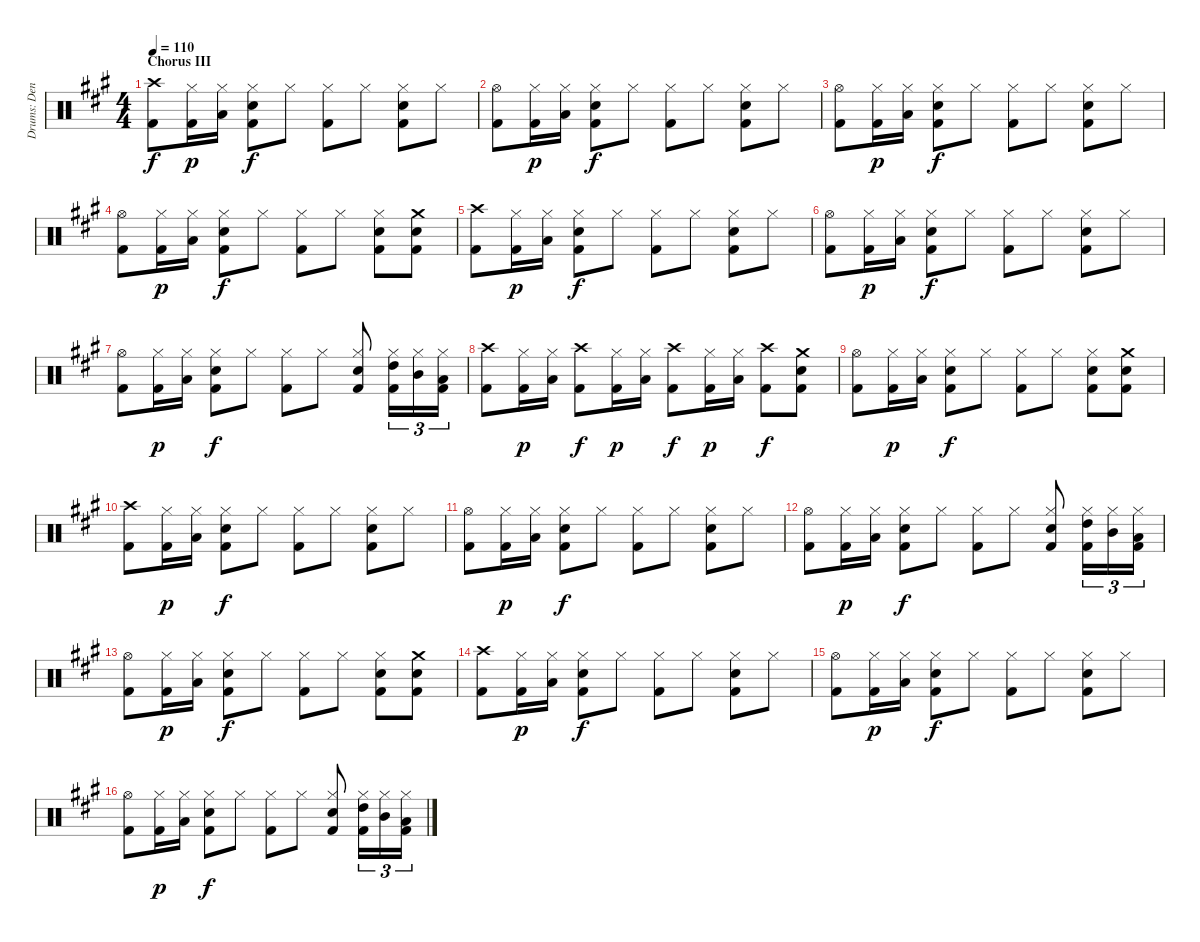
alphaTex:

\track ("Drums: Dennis Elliott" "Drums: Den") {instrument percussion}
\staff {score}
\articulation defaults
\ts (4 4)
\section ("" "Chorus III")
\tempo 110
\clef neutral
\ks a
("Crash high (hit)" "Kick (hit) 2").8{dy f} ("Hi-Hat (closed)" "Kick (hit) 2").16{dy p} ("Hi-Hat (closed)" "Low Tom (hit)").16 ("Hi-Hat (closed)" "Snare (hit) 2" "Kick (hit) 2").8{dy f} "Hi-Hat (closed)".8 ("Hi-Hat (closed)" "Kick (hit) 2").8 "Hi-Hat (closed)".8 ("Hi-Hat (closed)" "Snare (hit) 2" "Kick (hit) 2").8 "Hi-Hat (closed)".8 |
("Hi-Hat (open)" "Kick (hit) 2").8 ("Hi-Hat (closed)" "Kick (hit) 2").16{dy p} ("Hi-Hat (closed)" "Low Tom (hit)").16 ("Hi-Hat (closed)" "Snare (hit) 2" "Kick (hit) 2").8{dy f} "Hi-Hat (closed)".8 ("Hi-Hat (closed)" "Kick (hit) 2").8 "Hi-Hat (closed)".8 ("Hi-Hat (closed)" "Snare (hit) 2" "Kick (hit) 2").8 "Hi-Hat (closed)".8 |
("Hi-Hat (open)" "Kick (hit) 2").8 ("Hi-Hat (closed)" "Kick (hit) 2").16{dy p} ("Hi-Hat (closed)" "Low Tom (hit)").16 ("Hi-Hat (closed)" "Snare (hit) 2" "Kick (hit) 2").8{dy f} "Hi-Hat (closed)".8 ("Hi-Hat (closed)" "Kick (hit) 2").8 "Hi-Hat (closed)".8 ("Hi-Hat (closed)" "Snare (hit) 2" "Kick (hit) 2").8 "Hi-Hat (closed)".8 |
("Hi-Hat (open)" "Kick (hit) 2").8 ("Hi-Hat (closed)" "Kick (hit) 2").16{dy p} ("Hi-Hat (closed)" "Low Tom (hit)").16 ("Hi-Hat (closed)" "Snare (hit) 2" "Kick (hit) 2").8{dy f} "Hi-Hat (closed)".8 ("Hi-Hat (closed)" "Kick (hit) 2").8 "Hi-Hat (closed)".8 ("Hi-Hat (closed)" "Snare (hit) 2" "Kick (hit) 2").8 ("Crash medium (hit)" "Snare (hit) 2" "Kick (hit) 2").8 |
("Crash high (hit)" "Kick (hit) 2").8 ("Hi-Hat (closed)" "Kick (hit) 2").16{dy p} ("Hi-Hat (closed)" "Low Tom (hit)").16 ("Hi-Hat (closed)" "Snare (hit) 2" "Kick (hit) 2").8{dy f} "Hi-Hat (closed)".8 ("Hi-Hat (closed)" "Kick (hit) 2").8 "Hi-Hat (closed)".8 ("Hi-Hat (closed)" "Snare (hit) 2" "Kick (hit) 2").8 "Hi-Hat (closed)".8 |
("Hi-Hat (open)" "Kick (hit) 2").8 ("Hi-Hat (closed)" "Kick (hit) 2").16{dy p} ("Hi-Hat (closed)" "Low Tom (hit)").16 ("Hi-Hat (closed)" "Snare (hit) 2" "Kick (hit) 2").8{dy f} "Hi-Hat (closed)".8 ("Hi-Hat (closed)" "Kick (hit) 2").8 "Hi-Hat (closed)".8 ("Hi-Hat (closed)" "Snare (hit) 2" "Kick (hit) 2").8 "Hi-Hat (closed)".8 |
("Hi-Hat (open)" "Kick (hit) 2").8 ("Hi-Hat (closed)" "Kick (hit) 2").16{dy p} ("Hi-Hat (closed)" "Low Tom (hit)").16 ("Hi-Hat (closed)" "Snare (hit) 2" "Kick (hit) 2").8{dy f} "Hi-Hat (closed)".8 ("Hi-Hat (closed)" "Kick (hit) 2").8 "Hi-Hat (closed)".8 ("Hi-Hat (closed)" "Snare (hit) 2" "Kick (hit) 2").8 ("Hi-Hat (closed)" "High Tom (hit)" "Kick (hit) 2").16{tu (3 2)} ("Hi-Hat (closed)" "Mid Tom (hit)").16{tu (3 2)} ("Hi-Hat (closed)" "Low Tom (hit)" "Kick (hit) 2").16{tu (3 2)} |
("Crash high (hit)" "Kick (hit) 2").8 ("Hi-Hat (closed)" "Kick (hit) 2").16{dy p} ("Hi-Hat (closed)" "Low Tom (hit)").16 ("Crash high (hit)" "Kick (hit) 2").8{dy f} ("Hi-Hat (closed)" "Kick (hit) 2").16{dy p} ("Hi-Hat (closed)" "Low Tom (hit)").16 ("Crash high (hit)" "Kick (hit) 2").8{dy f} ("Hi-Hat (closed)" "Kick (hit) 2").16{dy p} ("Hi-Hat (closed)" "Low Tom (hit)").16 ("Crash high (hit)" "Kick (hit) 2").8{dy f} ("Crash medium (hit)" "Snare (hit) 2" "Kick (hit) 2").8 |
("Hi-Hat (open)" "Kick (hit) 2").8 ("Hi-Hat (closed)" "Kick (hit) 2").16{dy p} ("Hi-Hat (closed)" "Low Tom (hit)").16 ("Hi-Hat (closed)" "Snare (hit) 2" "Kick (hit) 2").8{dy f} "Hi-Hat (closed)".8 ("Hi-Hat (closed)" "Kick (hit) 2").8 "Hi-Hat (closed)".8 ("Hi-Hat (closed)" "Snare (hit) 2" "Kick (hit) 2").8 ("Crash medium (hit)" "Snare (hit) 2" "Kick (hit) 2").8 |
("Crash high (hit)" "Kick (hit) 2").8 ("Hi-Hat (closed)" "Kick (hit) 2").16{dy p} ("Hi-Hat (closed)" "Low Tom (hit)").16 ("Hi-Hat (closed)" "Snare (hit) 2" "Kick (hit) 2").8{dy f} "Hi-Hat (closed)".8 ("Hi-Hat (closed)" "Kick (hit) 2").8 "Hi-Hat (closed)".8 ("Hi-Hat (closed)" "Snare (hit) 2" "Kick (hit) 2").8 "Hi-Hat (closed)".8 |
("Hi-Hat (open)" "Kick (hit) 2").8 ("Hi-Hat (closed)" "Kick (hit) 2").16{dy p} ("Hi-Hat (closed)" "Low Tom (hit)").16 ("Hi-Hat (closed)" "Snare (hit) 2" "Kick (hit) 2").8{dy f} "Hi-Hat (closed)".8 ("Hi-Hat (closed)" "Kick (hit) 2").8 "Hi-Hat (closed)".8 ("Hi-Hat (closed)" "Snare (hit) 2" "Kick (hit) 2").8 "Hi-Hat (closed)".8 |
("Hi-Hat (open)" "Kick (hit) 2").8 ("Hi-Hat (closed)" "Kick (hit) 2").16{dy p} ("Hi-Hat (closed)" "Low Tom (hit)").16 ("Hi-Hat (closed)" "Snare (hit) 2" "Kick (hit) 2").8{dy f} "Hi-Hat (closed)".8 ("Hi-Hat (closed)" "Kick (hit) 2").8 "Hi-Hat (closed)".8 ("Hi-Hat (closed)" "Snare (hit) 2" "Kick (hit) 2").8 ("Hi-Hat (closed)" "High Tom (hit)" "Kick (hit) 2").16{tu (3 2)} ("Hi-Hat (closed)" "Mid Tom (hit)").16{tu (3 2)} ("Hi-Hat (closed)" "Low Tom (hit)" "Kick (hit) 2").16{tu (3 2)} |
("Hi-Hat (open)" "Kick (hit) 2").8 ("Hi-Hat (closed)" "Kick (hit) 2").16{dy p} ("Hi-Hat (closed)" "Low Tom (hit)").16 ("Hi-Hat (closed)" "Snare (hit) 2" "Kick (hit) 2").8{dy f} "Hi-Hat (closed)".8 ("Hi-Hat (closed)" "Kick (hit) 2").8 "Hi-Hat (closed)".8 ("Hi-Hat (closed)" "Snare (hit) 2" "Kick (hit) 2").8 ("Crash medium (hit)" "Snare (hit) 2" "Kick (hit) 2").8 |
("Crash high (hit)" "Kick (hit) 2").8 ("Hi-Hat (closed)" "Kick (hit) 2").16{dy p} ("Hi-Hat (closed)" "Low Tom (hit)").16 ("Hi-Hat (closed)" "Snare (hit) 2" "Kick (hit) 2").8{dy f} "Hi-Hat (closed)".8 ("Hi-Hat (closed)" "Kick (hit) 2").8 "Hi-Hat (closed)".8 ("Hi-Hat (closed)" "Snare (hit) 2" "Kick (hit) 2").8 "Hi-Hat (closed)".8 |
("Hi-Hat (open)" "Kick (hit) 2").8 ("Hi-Hat (closed)" "Kick (hit) 2").16{dy p} ("Hi-Hat (closed)" "Low Tom (hit)").16 ("Hi-Hat (closed)" "Snare (hit) 2" "Kick (hit) 2").8{dy f} "Hi-Hat (closed)".8 ("Hi-Hat (closed)" "Kick (hit) 2").8 "Hi-Hat (closed)".8 ("Hi-Hat (closed)" "Snare (hit) 2" "Kick (hit) 2").8 "Hi-Hat (closed)".8 |
("Hi-Hat (open)" "Kick (hit) 2").8 ("Hi-Hat (closed)" "Kick (hit) 2").16{dy p} ("Hi-Hat (closed)" "Low Tom (hit)").16 ("Hi-Hat (closed)" "Snare (hit) 2" "Kick (hit) 2").8{dy f} "Hi-Hat (closed)".8 ("Hi-Hat (closed)" "Kick (hit) 2").8 "Hi-Hat (closed)".8 ("Hi-Hat (closed)" "Snare (hit) 2" "Kick (hit) 2").8 ("Hi-Hat (closed)" "High Tom (hit)" "Kick (hit) 2").16{tu (3 2)} ("Hi-Hat (closed)" "Mid Tom (hit)").16{tu (3 2)} ("Hi-Hat (closed)" "Low Tom (hit)" "Kick (hit) 2").16{tu (3 2)}
